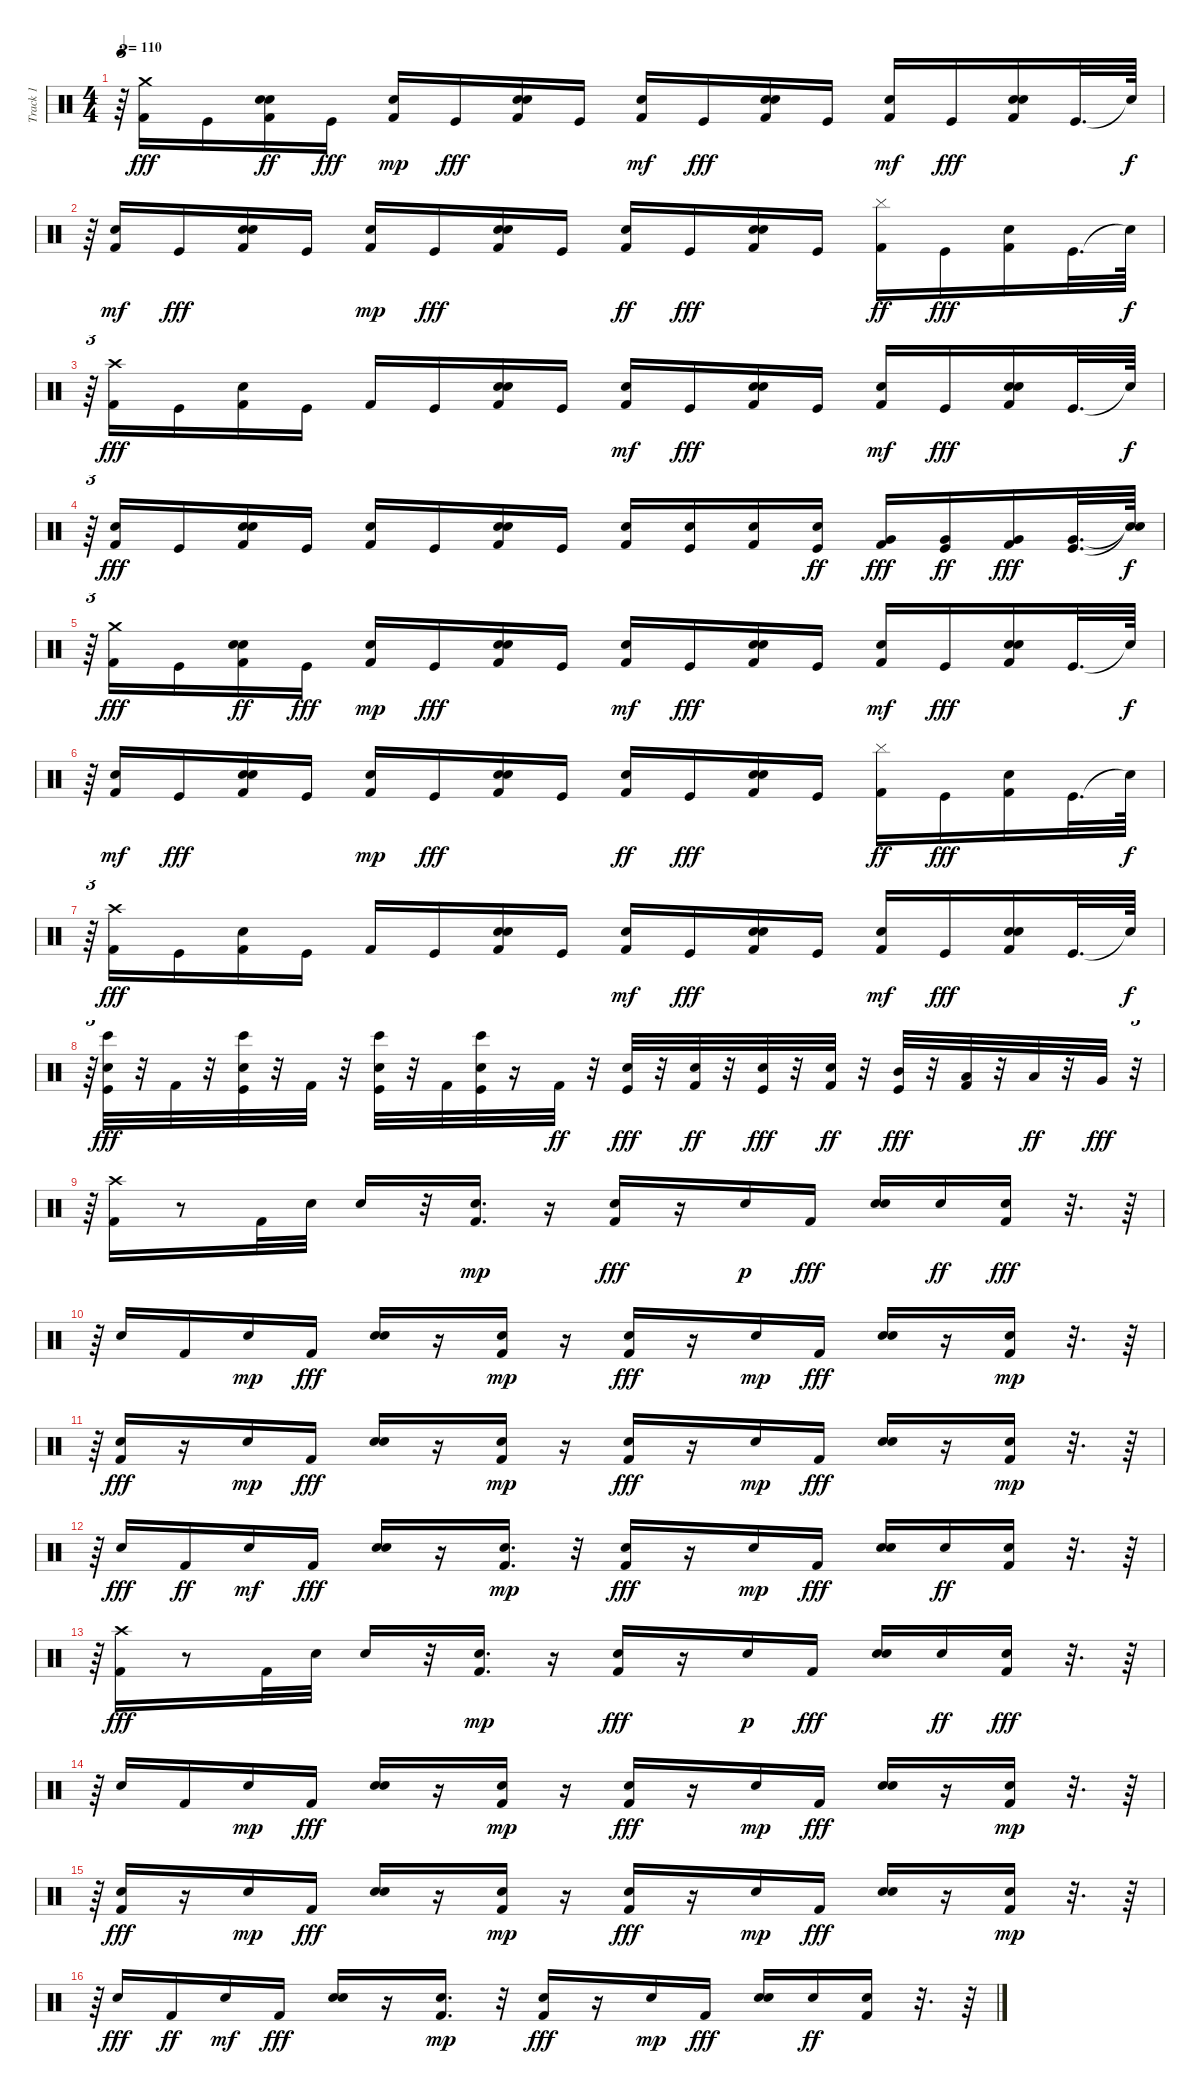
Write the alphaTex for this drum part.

\track ("Track 1" "Track 1") {mute instrument percussion}
\staff {score}
\articulation defaults
\ts (4 4)
\tempo 110
\clef neutral
\ks c
r.64{tu (3 2) dy f} ("Kick (hit) 2" "Crash medium (hit)").16{dy fff} "Kick (hit)".16 ("Kick (hit) 2" "Snare (hit) 2" "Snare (hit)").16{dy ff} "Kick (hit)".16{dy fff} ("Kick (hit) 2" "Snare (hit)").16{dy mp} "Kick (hit)".16{dy fff} ("Kick (hit) 2" "Snare (hit) 2" "Snare (hit)").16 "Kick (hit)".16 ("Kick (hit) 2" "Snare (hit)").16{dy mf} "Kick (hit)".16{dy fff} ("Kick (hit) 2" "Snare (hit) 2" "Snare (hit)").16 "Kick (hit)".16 ("Kick (hit) 2" "Snare (hit)").16{dy mf} "Kick (hit)".16{dy fff} ("Kick (hit) 2" "Snare (hit) 2" "Snare (hit)").16 "Kick (hit)".32{d} "Snare (hit)"{t}.64{dy f} |
r.64{tu (3 2)} ("Kick (hit) 2" "Snare (hit)").16{dy mf} "Kick (hit)".16{dy fff} ("Kick (hit) 2" "Snare (hit) 2" "Snare (hit)").16 "Kick (hit)".16 ("Kick (hit) 2" "Snare (hit)").16{dy mp} "Kick (hit)".16{dy fff} ("Kick (hit) 2" "Snare (hit)" "Snare (hit) 2").16 "Kick (hit)".16 ("Kick (hit) 2" "Snare (hit)").16{dy ff} "Kick (hit)".16{dy fff} ("Kick (hit) 2" "Snare (hit)" "Snare (hit) 2").16 "Kick (hit)".16 ("Kick (hit) 2" "Cymbal (hit)").16{dy ff} "Kick (hit)".16{dy fff} ("Kick (hit) 2" "Snare (hit) 2").16 "Kick (hit)".32{d} "Snare (hit)"{t}.64{dy f} |
r.64{tu (3 2)} ("Kick (hit) 2" "Crash high (hit)").16{dy fff} "Kick (hit)".16 ("Kick (hit) 2" "Snare (hit) 2").16 "Kick (hit)".16 "Kick (hit) 2".16 "Kick (hit)".16 ("Kick (hit) 2" "Snare (hit)" "Snare (hit) 2").16 "Kick (hit)".16 ("Kick (hit) 2" "Snare (hit)").16{dy mf} "Kick (hit)".16{dy fff} ("Kick (hit) 2" "Snare (hit) 2" "Snare (hit)").16 "Kick (hit)".16 ("Kick (hit) 2" "Snare (hit)").16{dy mf} "Kick (hit)".16{dy fff} ("Kick (hit) 2" "Snare (hit) 2" "Snare (hit)").16 "Kick (hit)".32{d} "Snare (hit)"{t}.64{dy f} |
r.64{tu (3 2)} ("Kick (hit) 2" "Snare (hit)").16{dy fff} "Kick (hit)".16 ("Kick (hit) 2" "Snare (hit) 2" "Snare (hit)").16 "Kick (hit)".16 ("Kick (hit) 2" "Snare (hit)").16 "Kick (hit)".16 ("Snare (hit)" "Kick (hit) 2" "Snare (hit) 2").16 "Kick (hit)".16 ("Kick (hit) 2" "Snare (hit) 2").16 ("Kick (hit)" "Snare (hit) 2").16 ("Kick (hit) 2" "Snare (hit) 2").16 ("Kick (hit)" "Snare (hit) 2").16{dy ff} ("Kick (hit) 2" "Very Low Tom (hit)").16{dy fff} ("Kick (hit)" "Very Low Tom (hit)").16{dy ff} ("Kick (hit) 2" "Very Low Tom (hit)").16{dy fff} ("Kick (hit)" "Very Low Tom (hit)").32{d} ("Snare (hit)"{t} "Snare (hit)"{t}).64{dy f} |
r.64{tu (3 2)} ("Kick (hit) 2" "Crash medium (hit)").16{dy fff} "Kick (hit)".16 ("Kick (hit) 2" "Snare (hit) 2" "Snare (hit)").16{dy ff} "Kick (hit)".16{dy fff} ("Kick (hit) 2" "Snare (hit)").16{dy mp} "Kick (hit)".16{dy fff} ("Kick (hit) 2" "Snare (hit) 2" "Snare (hit)").16 "Kick (hit)".16 ("Kick (hit) 2" "Snare (hit)").16{dy mf} "Kick (hit)".16{dy fff} ("Kick (hit) 2" "Snare (hit) 2" "Snare (hit)").16 "Kick (hit)".16 ("Kick (hit) 2" "Snare (hit)").16{dy mf} "Kick (hit)".16{dy fff} ("Kick (hit) 2" "Snare (hit) 2" "Snare (hit)").16 "Kick (hit)".32{d} "Snare (hit)"{t}.64{dy f} |
r.64{tu (3 2)} ("Kick (hit) 2" "Snare (hit)").16{dy mf} "Kick (hit)".16{dy fff} ("Kick (hit) 2" "Snare (hit) 2" "Snare (hit)").16 "Kick (hit)".16 ("Kick (hit) 2" "Snare (hit)").16{dy mp} "Kick (hit)".16{dy fff} ("Kick (hit) 2" "Snare (hit)" "Snare (hit) 2").16 "Kick (hit)".16 ("Kick (hit) 2" "Snare (hit)").16{dy ff} "Kick (hit)".16{dy fff} ("Kick (hit) 2" "Snare (hit)" "Snare (hit) 2").16 "Kick (hit)".16 ("Kick (hit) 2" "Cymbal (hit)").16{dy ff} "Kick (hit)".16{dy fff} ("Kick (hit) 2" "Snare (hit) 2").16 "Kick (hit)".32{d} "Snare (hit)"{t}.64{dy f} |
r.64{tu (3 2)} ("Kick (hit) 2" "Crash high (hit)").16{dy fff} "Kick (hit)".16 ("Kick (hit) 2" "Snare (hit) 2").16 "Kick (hit)".16 "Kick (hit) 2".16 "Kick (hit)".16 ("Kick (hit) 2" "Snare (hit)" "Snare (hit) 2").16 "Kick (hit)".16 ("Kick (hit) 2" "Snare (hit)").16{dy mf} "Kick (hit)".16{dy fff} ("Kick (hit) 2" "Snare (hit) 2" "Snare (hit)").16 "Kick (hit)".16 ("Kick (hit) 2" "Snare (hit)").16{dy mf} "Kick (hit)".16{dy fff} ("Kick (hit) 2" "Snare (hit) 2" "Snare (hit)").16 "Kick (hit)".32{d} "Snare (hit)"{t}.64{dy f} |
r.64{tu (3 2)} ("Kick (hit)" "Snare (hit) 2" "Bongo High (hit)").32{dy fff} r.32 "Kick (hit) 2".32 r.32 ("Kick (hit)" "Snare (hit) 2" "Bongo High (hit)").32 r.32 "Kick (hit) 2".32 r.32 ("Kick (hit)" "Snare (hit) 2" "Bongo High (hit)").32 r.32 "Kick (hit) 2".32 ("Snare (hit) 2" "Kick (hit)" "Bongo High (hit)").32 r.16 "Kick (hit) 2".32{dy ff} r.32 ("Kick (hit)" "Snare (hit) 2").32{dy fff} r.32 ("Snare (hit) 2" "Kick (hit) 2").32{dy ff} r.32 ("Kick (hit)" "Snare (hit) 2").32{dy fff} r.32 ("Kick (hit) 2" "Snare (hit) 2").32{dy ff} r.32 ("Kick (hit)" "Mid Tom (hit)").32{dy fff} r.32 ("Kick (hit) 2" "Low Tom (hit)").32 r.32 "Low Tom (hit)".32{dy ff} r.32 "Very Low Tom (hit)".32{dy fff} r.32{tu (3 2)} |
r.64{tu (3 2)} ("Kick (hit) 2" "Crash high (hit)").16 r.8 "Kick (hit) 2".32 "Snare (hit) 2".32 "Snare (hit)".16 r.32 ("Kick (hit) 2" "Snare (hit)").16{d dy mp} r.16 ("Snare (hit)" "Kick (hit) 2").16{dy fff} r.16 "Snare (hit)".16{dy p} "Kick (hit) 2".16{dy fff} ("Snare (hit) 2" "Snare (hit)").16 "Snare (hit) 2".16{dy ff} ("Snare (hit)" "Kick (hit) 2").16{dy fff} r.32{d} r.64 |
r.64{tu (3 2)} "Snare (hit)".16 "Kick (hit) 2".16 "Snare (hit)".16{dy mp} "Kick (hit) 2".16{dy fff} ("Snare (hit) 2" "Snare (hit)").16 r.16 ("Kick (hit) 2" "Snare (hit)").16{dy mp} r.16 ("Kick (hit) 2" "Snare (hit)").16{dy fff} r.16 "Snare (hit)".16{dy mp} "Kick (hit) 2".16{dy fff} ("Snare (hit) 2" "Snare (hit)").16 r.16 ("Kick (hit) 2" "Snare (hit)").16{dy mp} r.32{d} r.64 |
r.64{tu (3 2)} ("Kick (hit) 2" "Snare (hit)").16{dy fff} r.16 "Snare (hit)".16{dy mp} "Kick (hit) 2".16{dy fff} ("Snare (hit) 2" "Snare (hit)").16 r.16 ("Kick (hit) 2" "Snare (hit)").16{dy mp} r.16 ("Kick (hit) 2" "Snare (hit)").16{dy fff} r.16 "Snare (hit)".16{dy mp} "Kick (hit) 2".16{dy fff} ("Snare (hit) 2" "Snare (hit)").16 r.16 ("Kick (hit) 2" "Snare (hit)").16{dy mp} r.32{d} r.64 |
r.64{tu (3 2)} "Snare (hit)".16{dy fff} "Kick (hit) 2".16{dy ff} "Snare (hit)".16{dy mf} "Kick (hit) 2".16{dy fff} ("Snare (hit) 2" "Snare (hit)").16 r.16 ("Kick (hit) 2" "Snare (hit)").16{d dy mp} r.32 ("Kick (hit) 2" "Snare (hit)").16{dy fff} r.16 "Snare (hit)".16{dy mp} "Kick (hit) 2".16{dy fff} ("Snare (hit) 2" "Snare (hit)").16 "Snare (hit) 2".16{dy ff} ("Snare (hit)" "Kick (hit) 2").16 r.32{d} r.64 |
r.64{tu (3 2)} ("Kick (hit) 2" "Crash high (hit)").16{dy fff} r.8 "Kick (hit) 2".32 "Snare (hit) 2".32 "Snare (hit)".16 r.32 ("Kick (hit) 2" "Snare (hit)").16{d dy mp} r.16 ("Snare (hit)" "Kick (hit) 2").16{dy fff} r.16 "Snare (hit)".16{dy p} "Kick (hit) 2".16{dy fff} ("Snare (hit) 2" "Snare (hit)").16 "Snare (hit) 2".16{dy ff} ("Snare (hit)" "Kick (hit) 2").16{dy fff} r.32{d} r.64 |
r.64{tu (3 2)} "Snare (hit)".16 "Kick (hit) 2".16 "Snare (hit)".16{dy mp} "Kick (hit) 2".16{dy fff} ("Snare (hit) 2" "Snare (hit)").16 r.16 ("Kick (hit) 2" "Snare (hit)").16{dy mp} r.16 ("Kick (hit) 2" "Snare (hit)").16{dy fff} r.16 "Snare (hit)".16{dy mp} "Kick (hit) 2".16{dy fff} ("Snare (hit) 2" "Snare (hit)").16 r.16 ("Kick (hit) 2" "Snare (hit)").16{dy mp} r.32{d} r.64 |
r.64{tu (3 2)} ("Kick (hit) 2" "Snare (hit)").16{dy fff} r.16 "Snare (hit)".16{dy mp} "Kick (hit) 2".16{dy fff} ("Snare (hit) 2" "Snare (hit)").16 r.16 ("Kick (hit) 2" "Snare (hit)").16{dy mp} r.16 ("Kick (hit) 2" "Snare (hit)").16{dy fff} r.16 "Snare (hit)".16{dy mp} "Kick (hit) 2".16{dy fff} ("Snare (hit) 2" "Snare (hit)").16 r.16 ("Kick (hit) 2" "Snare (hit)").16{dy mp} r.32{d} r.64 |
r.64{tu (3 2)} "Snare (hit)".16{dy fff} "Kick (hit) 2".16{dy ff} "Snare (hit)".16{dy mf} "Kick (hit) 2".16{dy fff} ("Snare (hit) 2" "Snare (hit)").16 r.16 ("Kick (hit) 2" "Snare (hit)").16{d dy mp} r.32 ("Kick (hit) 2" "Snare (hit)").16{dy fff} r.16 "Snare (hit)".16{dy mp} "Kick (hit) 2".16{dy fff} ("Snare (hit) 2" "Snare (hit)").16 "Snare (hit) 2".16{dy ff} ("Snare (hit)" "Kick (hit) 2").16 r.32{d} r.64
